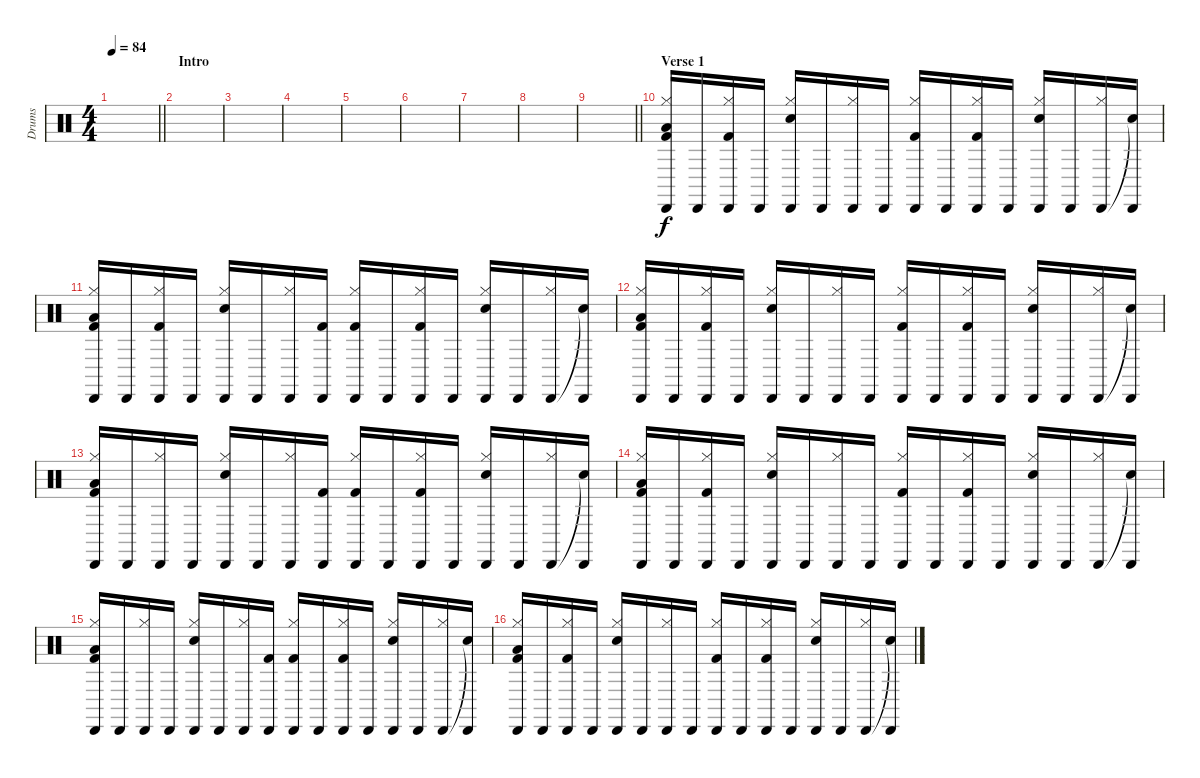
\track ("Drums" "Drums") {instrument percussion}
\staff {score}
\articulation defaults
\ts (4 4)
\tempo 84
\clef neutral
\barLineRight lightlight
\ks c
|
\section ("" "Intro")
|
|
|
|
|
|
|
\barLineRight lightlight
|
\section ("" "Verse 1")
("Hi-Hat (closed)" "Cabasa (hit)" "Low Floor Tom (hit)" "Kick (hit) 2").16 "Cabasa (hit)".16 ("Hi-Hat (closed)" "Cabasa (hit)" "Kick (hit) 2").16 "Cabasa (hit)".16 ("Hi-Hat (closed)" "Cabasa (hit)" "Electric Snare (hit)").16 "Cabasa (hit)".16 ("Hi-Hat (closed)" "Cabasa (hit)").16 "Cabasa (hit)".16 ("Hi-Hat (closed)" "Cabasa (hit)" "Kick (hit) 2").16 "Cabasa (hit)".16 ("Hi-Hat (closed)" "Cabasa (hit)" "Kick (hit) 2").16 "Cabasa (hit)".16 ("Hi-Hat (closed)" "Cabasa (hit)" "Electric Snare (hit)").16 "Cabasa (hit)".16 ("Hi-Hat (closed)" "Cabasa (hit)").16 ("Cabasa (hit)" "Snare (hit)"{t}).16 |
("Hi-Hat (closed)" "Cabasa (hit)" "Low Floor Tom (hit)" "Kick (hit) 2").16 "Cabasa (hit)".16 ("Hi-Hat (closed)" "Cabasa (hit)" "Kick (hit) 2").16 "Cabasa (hit)".16 ("Hi-Hat (closed)" "Cabasa (hit)" "Electric Snare (hit)").16 "Cabasa (hit)".16 ("Hi-Hat (closed)" "Cabasa (hit)").16 ("Cabasa (hit)" "Kick (hit) 2").16 ("Hi-Hat (closed)" "Cabasa (hit)" "Kick (hit) 2").16 "Cabasa (hit)".16 ("Hi-Hat (closed)" "Cabasa (hit)" "Kick (hit) 2").16 "Cabasa (hit)".16 ("Hi-Hat (closed)" "Cabasa (hit)" "Electric Snare (hit)").16 "Cabasa (hit)".16 ("Hi-Hat (closed)" "Cabasa (hit)").16 ("Cabasa (hit)" "Snare (hit)"{t}).16 |
("Hi-Hat (closed)" "Cabasa (hit)" "Low Floor Tom (hit)" "Kick (hit) 2").16 "Cabasa (hit)".16 ("Hi-Hat (closed)" "Cabasa (hit)" "Kick (hit) 2").16 "Cabasa (hit)".16 ("Hi-Hat (closed)" "Cabasa (hit)" "Electric Snare (hit)").16 "Cabasa (hit)".16 ("Hi-Hat (closed)" "Cabasa (hit)").16 "Cabasa (hit)".16 ("Hi-Hat (closed)" "Cabasa (hit)" "Kick (hit) 2").16 "Cabasa (hit)".16 ("Hi-Hat (closed)" "Cabasa (hit)" "Kick (hit) 2").16 "Cabasa (hit)".16 ("Hi-Hat (closed)" "Cabasa (hit)" "Electric Snare (hit)").16 "Cabasa (hit)".16 ("Hi-Hat (closed)" "Cabasa (hit)").16 ("Cabasa (hit)" "Snare (hit)"{t}).16 |
("Hi-Hat (closed)" "Cabasa (hit)" "Low Floor Tom (hit)" "Kick (hit) 2").16 "Cabasa (hit)".16 ("Hi-Hat (closed)" "Cabasa (hit)").16 "Cabasa (hit)".16 ("Hi-Hat (closed)" "Cabasa (hit)" "Electric Snare (hit)").16 "Cabasa (hit)".16 ("Hi-Hat (closed)" "Cabasa (hit)").16 ("Cabasa (hit)" "Kick (hit) 2").16 ("Hi-Hat (closed)" "Cabasa (hit)" "Kick (hit) 2").16 "Cabasa (hit)".16 ("Hi-Hat (closed)" "Cabasa (hit)" "Kick (hit) 2").16 "Cabasa (hit)".16 ("Hi-Hat (closed)" "Cabasa (hit)" "Electric Snare (hit)").16 "Cabasa (hit)".16 ("Hi-Hat (closed)" "Cabasa (hit)").16 ("Cabasa (hit)" "Snare (hit)"{t}).16 |
("Hi-Hat (closed)" "Cabasa (hit)" "Low Floor Tom (hit)" "Kick (hit) 2").16 "Cabasa (hit)".16 ("Hi-Hat (closed)" "Cabasa (hit)" "Kick (hit) 2").16 "Cabasa (hit)".16 ("Hi-Hat (closed)" "Cabasa (hit)" "Electric Snare (hit)").16 "Cabasa (hit)".16 ("Hi-Hat (closed)" "Cabasa (hit)").16 "Cabasa (hit)".16 ("Hi-Hat (closed)" "Cabasa (hit)" "Kick (hit) 2").16 "Cabasa (hit)".16 ("Hi-Hat (closed)" "Cabasa (hit)" "Kick (hit) 2").16 "Cabasa (hit)".16 ("Hi-Hat (closed)" "Cabasa (hit)" "Electric Snare (hit)").16 "Cabasa (hit)".16 ("Hi-Hat (closed)" "Cabasa (hit)").16 ("Cabasa (hit)" "Snare (hit)"{t}).16 |
("Hi-Hat (closed)" "Cabasa (hit)" "Low Floor Tom (hit)" "Kick (hit) 2").16 "Cabasa (hit)".16 ("Hi-Hat (closed)" "Cabasa (hit)").16 "Cabasa (hit)".16 ("Hi-Hat (closed)" "Cabasa (hit)" "Electric Snare (hit)").16 "Cabasa (hit)".16 ("Hi-Hat (closed)" "Cabasa (hit)").16 ("Cabasa (hit)" "Kick (hit) 2").16 ("Hi-Hat (closed)" "Cabasa (hit)" "Kick (hit) 2").16 "Cabasa (hit)".16 ("Hi-Hat (closed)" "Cabasa (hit)" "Kick (hit) 2").16 "Cabasa (hit)".16 ("Hi-Hat (closed)" "Cabasa (hit)" "Electric Snare (hit)").16 "Cabasa (hit)".16 ("Hi-Hat (closed)" "Cabasa (hit)").16 ("Cabasa (hit)" "Snare (hit)"{t}).16 |
("Hi-Hat (closed)" "Cabasa (hit)" "Low Floor Tom (hit)" "Kick (hit) 2").16 "Cabasa (hit)".16 ("Hi-Hat (closed)" "Cabasa (hit)" "Kick (hit) 2").16 "Cabasa (hit)".16 ("Hi-Hat (closed)" "Cabasa (hit)" "Electric Snare (hit)").16 "Cabasa (hit)".16 ("Hi-Hat (closed)" "Cabasa (hit)").16 "Cabasa (hit)".16 ("Hi-Hat (closed)" "Cabasa (hit)" "Kick (hit) 2").16 "Cabasa (hit)".16 ("Hi-Hat (closed)" "Cabasa (hit)" "Kick (hit) 2").16 "Cabasa (hit)".16 ("Hi-Hat (closed)" "Cabasa (hit)" "Electric Snare (hit)").16 "Cabasa (hit)".16 ("Hi-Hat (closed)" "Cabasa (hit)").16 ("Cabasa (hit)" "Snare (hit)"{t}).16
